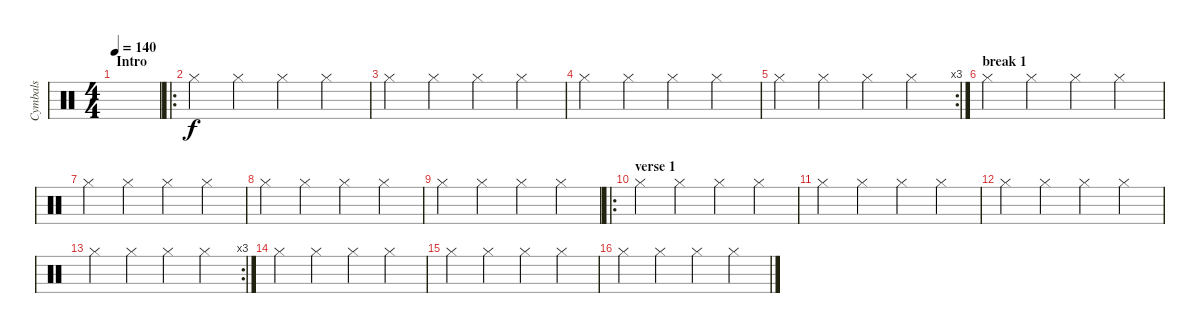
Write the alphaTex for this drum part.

\track ("Cymbals" "Cymbals") {instrument percussion}
\staff {score}
\articulation defaults
\ts (4 4)
\section ("" "Intro")
\tempo 140
\clef neutral
\ks c
|
\ro "Hi-Hat (closed)".4 "Hi-Hat (closed)".4 "Hi-Hat (closed)".4 "Hi-Hat (closed)".4
|
"Hi-Hat (closed)".4 "Hi-Hat (closed)".4 "Hi-Hat (closed)".4 "Hi-Hat (closed)".4 |
"Hi-Hat (closed)".4 "Hi-Hat (closed)".4 "Hi-Hat (closed)".4 "Hi-Hat (closed)".4 |
\rc 3 "Hi-Hat (closed)".4 "Hi-Hat (closed)".4 "Hi-Hat (closed)".4 "Hi-Hat (closed)".4
|
\section ("" "break 1")
"Hi-Hat (closed)".4 "Hi-Hat (closed)".4 "Hi-Hat (closed)".4 "Hi-Hat (closed)".4 |
"Hi-Hat (closed)".4 "Hi-Hat (closed)".4 "Hi-Hat (closed)".4 "Hi-Hat (closed)".4 |
"Hi-Hat (closed)".4 "Hi-Hat (closed)".4 "Hi-Hat (closed)".4 "Hi-Hat (closed)".4 |
"Hi-Hat (closed)".4 "Hi-Hat (closed)".4 "Hi-Hat (closed)".4 "Hi-Hat (closed)".4 |
\ro
\section ("" "verse 1")
"Hi-Hat (closed)".4 "Hi-Hat (closed)".4 "Hi-Hat (closed)".4 "Hi-Hat (closed)".4 |
"Hi-Hat (closed)".4 "Hi-Hat (closed)".4 "Hi-Hat (closed)".4 "Hi-Hat (closed)".4 |
"Hi-Hat (closed)".4 "Hi-Hat (closed)".4 "Hi-Hat (closed)".4 "Hi-Hat (closed)".4 |
\rc 3 "Hi-Hat (closed)".4 "Hi-Hat (closed)".4 "Hi-Hat (closed)".4 "Hi-Hat (closed)".4
|
"Hi-Hat (closed)".4 "Hi-Hat (closed)".4 "Hi-Hat (closed)".4 "Hi-Hat (closed)".4 |
"Hi-Hat (closed)".4 "Hi-Hat (closed)".4 "Hi-Hat (closed)".4 "Hi-Hat (closed)".4 |
"Hi-Hat (closed)".4 "Hi-Hat (closed)".4 "Hi-Hat (closed)".4 "Hi-Hat (closed)".4
